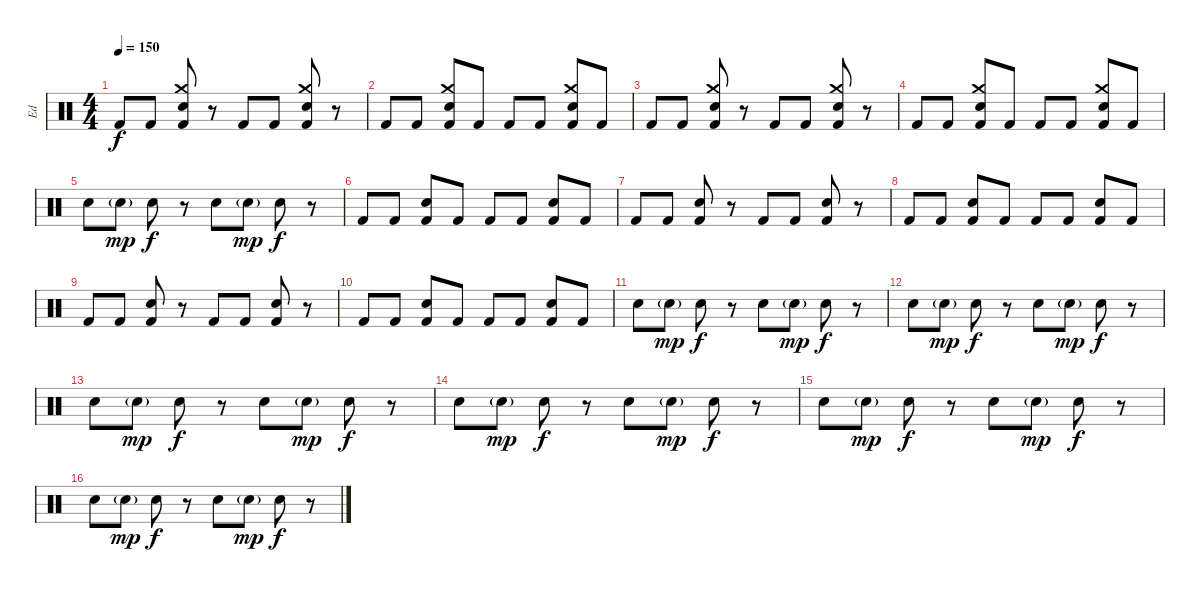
\track ("Ed" "Ed") {instrument percussion}
\staff {score}
\articulation defaults
\ts (4 4)
\tempo 150
\clef neutral
\ks c "Kick (hit) 2".8{dy f} "Kick (hit) 2".8
("Crash medium (hit)" "Electric Snare (hit)" "Kick (hit) 2").8 r.8 "Kick (hit) 2".8 "Kick (hit) 2".8 ("Crash medium (hit)" "Electric Snare (hit)" "Kick (hit) 2").8 r.8 |
"Kick (hit) 2".8 "Kick (hit) 2".8 ("Crash medium (hit)" "Electric Snare (hit)" "Kick (hit) 2").8 "Kick (hit) 2".8 "Kick (hit) 2".8 "Kick (hit) 2".8 ("Crash medium (hit)" "Electric Snare (hit)" "Kick (hit) 2").8 "Kick (hit) 2".8 |
"Kick (hit) 2".8 "Kick (hit) 2".8 ("Crash medium (hit)" "Electric Snare (hit)" "Kick (hit) 2").8 r.8 "Kick (hit) 2".8 "Kick (hit) 2".8 ("Crash medium (hit)" "Electric Snare (hit)" "Kick (hit) 2").8 r.8 |
"Kick (hit) 2".8 "Kick (hit) 2".8 ("Crash medium (hit)" "Electric Snare (hit)" "Kick (hit) 2").8 "Kick (hit) 2".8 "Kick (hit) 2".8 "Kick (hit) 2".8 ("Crash medium (hit)" "Electric Snare (hit)" "Kick (hit) 2").8 "Kick (hit) 2".8 |
"Electric Snare (hit)".8 "Electric Snare (hit)"{g}.8{dy mp} "Electric Snare (hit)".8{dy f} r.8 "Electric Snare (hit)".8 "Electric Snare (hit)"{g}.8{dy mp} "Electric Snare (hit)".8{dy f} r.8 |
"Kick (hit) 2".8 "Kick (hit) 2".8 ("Electric Snare (hit)" "Kick (hit) 2").8 "Kick (hit) 2".8 "Kick (hit) 2".8 "Kick (hit) 2".8 ("Electric Snare (hit)" "Kick (hit) 2").8 "Kick (hit) 2".8 |
"Kick (hit) 2".8 "Kick (hit) 2".8 ("Electric Snare (hit)" "Kick (hit) 2").8 r.8 "Kick (hit) 2".8 "Kick (hit) 2".8 ("Electric Snare (hit)" "Kick (hit) 2").8 r.8 |
"Kick (hit) 2".8 "Kick (hit) 2".8 ("Electric Snare (hit)" "Kick (hit) 2").8 "Kick (hit) 2".8 "Kick (hit) 2".8 "Kick (hit) 2".8 ("Electric Snare (hit)" "Kick (hit) 2").8 "Kick (hit) 2".8 |
"Kick (hit) 2".8 "Kick (hit) 2".8 ("Electric Snare (hit)" "Kick (hit) 2").8 r.8 "Kick (hit) 2".8 "Kick (hit) 2".8 ("Electric Snare (hit)" "Kick (hit) 2").8 r.8 |
"Kick (hit) 2".8 "Kick (hit) 2".8 ("Electric Snare (hit)" "Kick (hit) 2").8 "Kick (hit) 2".8 "Kick (hit) 2".8 "Kick (hit) 2".8 ("Electric Snare (hit)" "Kick (hit) 2").8 "Kick (hit) 2".8 |
"Electric Snare (hit)".8 "Electric Snare (hit)"{g}.8{dy mp} "Electric Snare (hit)".8{dy f} r.8 "Electric Snare (hit)".8 "Electric Snare (hit)"{g}.8{dy mp} "Electric Snare (hit)".8{dy f} r.8 |
"Electric Snare (hit)".8 "Electric Snare (hit)"{g}.8{dy mp} "Electric Snare (hit)".8{dy f} r.8 "Electric Snare (hit)".8 "Electric Snare (hit)"{g}.8{dy mp} "Electric Snare (hit)".8{dy f} r.8 |
"Electric Snare (hit)".8 "Electric Snare (hit)"{g}.8{dy mp} "Electric Snare (hit)".8{dy f} r.8 "Electric Snare (hit)".8 "Electric Snare (hit)"{g}.8{dy mp} "Electric Snare (hit)".8{dy f} r.8 |
"Electric Snare (hit)".8 "Electric Snare (hit)"{g}.8{dy mp} "Electric Snare (hit)".8{dy f} r.8 "Electric Snare (hit)".8 "Electric Snare (hit)"{g}.8{dy mp} "Electric Snare (hit)".8{dy f} r.8 |
"Electric Snare (hit)".8 "Electric Snare (hit)"{g}.8{dy mp} "Electric Snare (hit)".8{dy f} r.8 "Electric Snare (hit)".8 "Electric Snare (hit)"{g}.8{dy mp} "Electric Snare (hit)".8{dy f} r.8 |
"Electric Snare (hit)".8 "Electric Snare (hit)"{g}.8{dy mp} "Electric Snare (hit)".8{dy f} r.8 "Electric Snare (hit)".8 "Electric Snare (hit)"{g}.8{dy mp} "Electric Snare (hit)".8{dy f} r.8
